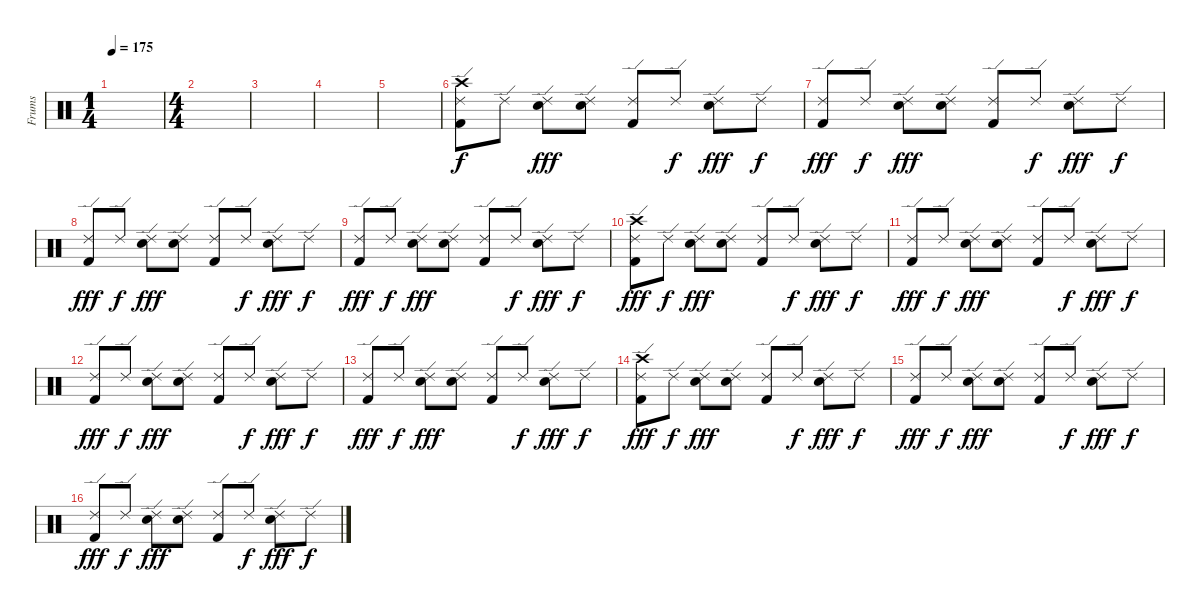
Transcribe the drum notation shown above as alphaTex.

\track ("Frums" "Frums") {instrument percussion}
\staff {score}
\articulation defaults
\ts (1 4)
\tempo 175
\clef neutral
\ks c
|
\ts (4 4)
|
|
|
|
("Ride (edge) 2" "Kick (hit) 2" "Crash high (hit)").8 "Ride (edge) 2".8{dy f} ("Ride (edge) 2" "Electric Snare (hit)").8{dy fff} ("Ride (edge) 2" "Electric Snare (hit)").8 ("Ride (edge) 2" "Kick (hit) 2").8 "Ride (edge) 2".8{dy f} ("Ride (edge) 2" "Electric Snare (hit)").8{dy fff} "Ride (edge) 2".8{dy f} |
("Ride (edge) 2" "Kick (hit) 2").8{dy fff} "Ride (edge) 2".8{dy f} ("Ride (edge) 2" "Electric Snare (hit)").8{dy fff} ("Ride (edge) 2" "Electric Snare (hit)").8 ("Ride (edge) 2" "Kick (hit) 2").8 "Ride (edge) 2".8{dy f} ("Ride (edge) 2" "Electric Snare (hit)").8{dy fff} "Ride (edge) 2".8{dy f} |
("Ride (edge) 2" "Kick (hit) 2").8{dy fff} "Ride (edge) 2".8{dy f} ("Ride (edge) 2" "Electric Snare (hit)").8{dy fff} ("Ride (edge) 2" "Electric Snare (hit)").8 ("Ride (edge) 2" "Kick (hit) 2").8 "Ride (edge) 2".8{dy f} ("Ride (edge) 2" "Electric Snare (hit)").8{dy fff} "Ride (edge) 2".8{dy f} |
("Ride (edge) 2" "Kick (hit) 2").8{dy fff} "Ride (edge) 2".8{dy f} ("Ride (edge) 2" "Electric Snare (hit)").8{dy fff} ("Ride (edge) 2" "Electric Snare (hit)").8 ("Ride (edge) 2" "Kick (hit) 2").8 "Ride (edge) 2".8{dy f} ("Ride (edge) 2" "Electric Snare (hit)").8{dy fff} "Ride (edge) 2".8{dy f} |
("Ride (edge) 2" "Kick (hit) 2" "Crash high (hit)").8{dy fff} "Ride (edge) 2".8{dy f} ("Ride (edge) 2" "Electric Snare (hit)").8{dy fff} ("Ride (edge) 2" "Electric Snare (hit)").8 ("Ride (edge) 2" "Kick (hit) 2").8 "Ride (edge) 2".8{dy f} ("Ride (edge) 2" "Electric Snare (hit)").8{dy fff} "Ride (edge) 2".8{dy f} |
("Ride (edge) 2" "Kick (hit) 2").8{dy fff} "Ride (edge) 2".8{dy f} ("Ride (edge) 2" "Electric Snare (hit)").8{dy fff} ("Ride (edge) 2" "Electric Snare (hit)").8 ("Ride (edge) 2" "Kick (hit) 2").8 "Ride (edge) 2".8{dy f} ("Ride (edge) 2" "Electric Snare (hit)").8{dy fff} "Ride (edge) 2".8{dy f} |
("Ride (edge) 2" "Kick (hit) 2").8{dy fff} "Ride (edge) 2".8{dy f} ("Ride (edge) 2" "Electric Snare (hit)").8{dy fff} ("Ride (edge) 2" "Electric Snare (hit)").8 ("Ride (edge) 2" "Kick (hit) 2").8 "Ride (edge) 2".8{dy f} ("Ride (edge) 2" "Electric Snare (hit)").8{dy fff} "Ride (edge) 2".8{dy f} |
("Ride (edge) 2" "Kick (hit) 2").8{dy fff} "Ride (edge) 2".8{dy f} ("Ride (edge) 2" "Electric Snare (hit)").8{dy fff} ("Ride (edge) 2" "Electric Snare (hit)").8 ("Ride (edge) 2" "Kick (hit) 2").8 "Ride (edge) 2".8{dy f} ("Ride (edge) 2" "Electric Snare (hit)").8{dy fff} "Ride (edge) 2".8{dy f} |
("Ride (edge) 2" "Kick (hit) 2" "Crash high (hit)").8{dy fff} "Ride (edge) 2".8{dy f} ("Ride (edge) 2" "Electric Snare (hit)").8{dy fff} ("Ride (edge) 2" "Electric Snare (hit)").8 ("Ride (edge) 2" "Kick (hit) 2").8 "Ride (edge) 2".8{dy f} ("Ride (edge) 2" "Electric Snare (hit)").8{dy fff} "Ride (edge) 2".8{dy f} |
("Ride (edge) 2" "Kick (hit) 2").8{dy fff} "Ride (edge) 2".8{dy f} ("Ride (edge) 2" "Electric Snare (hit)").8{dy fff} ("Ride (edge) 2" "Electric Snare (hit)").8 ("Ride (edge) 2" "Kick (hit) 2").8 "Ride (edge) 2".8{dy f} ("Ride (edge) 2" "Electric Snare (hit)").8{dy fff} "Ride (edge) 2".8{dy f} |
("Ride (edge) 2" "Kick (hit) 2").8{dy fff} "Ride (edge) 2".8{dy f} ("Ride (edge) 2" "Electric Snare (hit)").8{dy fff} ("Ride (edge) 2" "Electric Snare (hit)").8 ("Ride (edge) 2" "Kick (hit) 2").8 "Ride (edge) 2".8{dy f} ("Ride (edge) 2" "Electric Snare (hit)").8{dy fff} "Ride (edge) 2".8{dy f}
